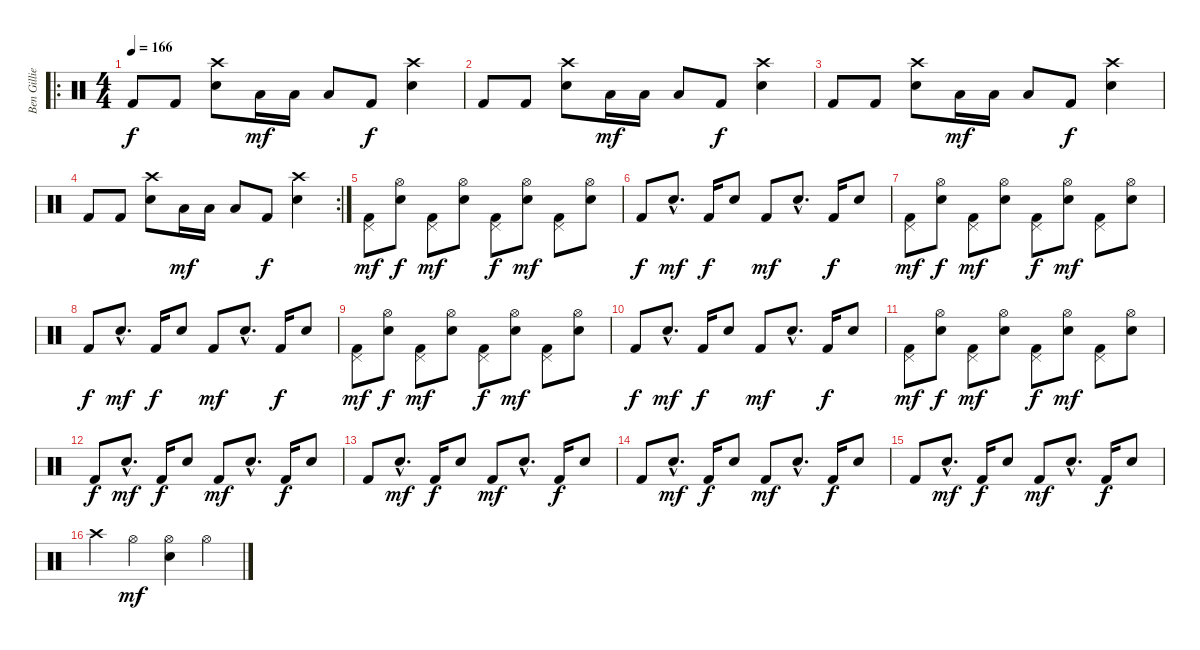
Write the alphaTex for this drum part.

\track ("Ben Gillies" "Ben Gillie") {instrument percussion}
\staff {score}
\articulation defaults
\ro
\ts (4 4)
\tempo 166
\clef neutral
\ks c "Kick (hit) 2".8{dy f} "Kick (hit) 2".8
("Crash high (hit)" "Electric Snare (hit)").8 "Low Tom (hit)".16{dy mf} "Low Tom (hit)".16 "Low Tom (hit)".8 "Kick (hit) 2".8{dy f} ("Crash high (hit)" "Electric Snare (hit)").4 |
"Kick (hit) 2".8 "Kick (hit) 2".8 ("Crash high (hit)" "Electric Snare (hit)").8 "Low Tom (hit)".16{dy mf} "Low Tom (hit)".16 "Low Tom (hit)".8 "Kick (hit) 2".8{dy f} ("Crash high (hit)" "Electric Snare (hit)").4 |
"Kick (hit) 2".8 "Kick (hit) 2".8 ("Crash high (hit)" "Electric Snare (hit)").8 "Low Tom (hit)".16{dy mf} "Low Tom (hit)".16 "Low Tom (hit)".8 "Kick (hit) 2".8{dy f} ("Crash high (hit)" "Electric Snare (hit)").4 |
\rc 2 "Kick (hit) 2".8 "Kick (hit) 2".8
("Crash high (hit)" "Electric Snare (hit)").8 "Low Tom (hit)".16{dy mf} "Low Tom (hit)".16 "Low Tom (hit)".8 "Kick (hit) 2".8{dy f} ("Crash high (hit)" "Electric Snare (hit)").4 |
("Pedal Hi-Hat (hit)" "Kick (hit) 2").8{dy mf} ("Hi-Hat (open)" "Electric Snare (hit)").8{dy f} ("Pedal Hi-Hat (hit)" "Kick (hit) 2").8{dy mf} ("Hi-Hat (open)" "Electric Snare (hit)").8 ("Pedal Hi-Hat (hit)" "Kick (hit) 2").8{dy f} ("Hi-Hat (open)" "Electric Snare (hit)").8{dy mf} ("Pedal Hi-Hat (hit)" "Kick (hit) 2").8 ("Hi-Hat (open)" "Electric Snare (hit)").8 |
"Kick (hit) 2".8{dy f} "Electric Snare (hit)"{hac}.8{d dy mf} "Kick (hit) 2".16{dy f} "Electric Snare (hit)".8 "Kick (hit) 2".8{dy mf} "Electric Snare (hit)"{hac}.8{d} "Kick (hit) 2".16{dy f} "Electric Snare (hit)".8 |
("Pedal Hi-Hat (hit)" "Kick (hit) 2").8{dy mf} ("Hi-Hat (open)" "Electric Snare (hit)").8{dy f} ("Pedal Hi-Hat (hit)" "Kick (hit) 2").8{dy mf} ("Hi-Hat (open)" "Electric Snare (hit)").8 ("Pedal Hi-Hat (hit)" "Kick (hit) 2").8{dy f} ("Hi-Hat (open)" "Electric Snare (hit)").8{dy mf} ("Pedal Hi-Hat (hit)" "Kick (hit) 2").8 ("Hi-Hat (open)" "Electric Snare (hit)").8 |
"Kick (hit) 2".8{dy f} "Electric Snare (hit)"{hac}.8{d dy mf} "Kick (hit) 2".16{dy f} "Electric Snare (hit)".8 "Kick (hit) 2".8{dy mf} "Electric Snare (hit)"{hac}.8{d} "Kick (hit) 2".16{dy f} "Electric Snare (hit)".8 |
("Pedal Hi-Hat (hit)" "Kick (hit) 2").8{dy mf} ("Hi-Hat (open)" "Electric Snare (hit)").8{dy f} ("Pedal Hi-Hat (hit)" "Kick (hit) 2").8{dy mf} ("Hi-Hat (open)" "Electric Snare (hit)").8 ("Pedal Hi-Hat (hit)" "Kick (hit) 2").8{dy f} ("Hi-Hat (open)" "Electric Snare (hit)").8{dy mf} ("Pedal Hi-Hat (hit)" "Kick (hit) 2").8 ("Hi-Hat (open)" "Electric Snare (hit)").8 |
"Kick (hit) 2".8{dy f} "Electric Snare (hit)"{hac}.8{d dy mf} "Kick (hit) 2".16{dy f} "Electric Snare (hit)".8 "Kick (hit) 2".8{dy mf} "Electric Snare (hit)"{hac}.8{d} "Kick (hit) 2".16{dy f} "Electric Snare (hit)".8 |
("Pedal Hi-Hat (hit)" "Kick (hit) 2").8{dy mf} ("Hi-Hat (open)" "Electric Snare (hit)").8{dy f} ("Pedal Hi-Hat (hit)" "Kick (hit) 2").8{dy mf} ("Hi-Hat (open)" "Electric Snare (hit)").8 ("Pedal Hi-Hat (hit)" "Kick (hit) 2").8{dy f} ("Hi-Hat (open)" "Electric Snare (hit)").8{dy mf} ("Pedal Hi-Hat (hit)" "Kick (hit) 2").8 ("Hi-Hat (open)" "Electric Snare (hit)").8 |
"Kick (hit) 2".8{dy f} "Electric Snare (hit)"{hac}.8{d dy mf} "Kick (hit) 2".16{dy f} "Electric Snare (hit)".8 "Kick (hit) 2".8{dy mf} "Electric Snare (hit)"{hac}.8{d} "Kick (hit) 2".16{dy f} "Electric Snare (hit)".8 |
"Kick (hit) 2".8 "Electric Snare (hit)"{hac}.8{d dy mf} "Kick (hit) 2".16{dy f} "Electric Snare (hit)".8 "Kick (hit) 2".8{dy mf} "Electric Snare (hit)"{hac}.8{d} "Kick (hit) 2".16{dy f} "Electric Snare (hit)".8 |
"Kick (hit) 2".8 "Electric Snare (hit)"{hac}.8{d dy mf} "Kick (hit) 2".16{dy f} "Electric Snare (hit)".8 "Kick (hit) 2".8{dy mf} "Electric Snare (hit)"{hac}.8{d} "Kick (hit) 2".16{dy f} "Electric Snare (hit)".8 |
"Kick (hit) 2".8 "Electric Snare (hit)"{hac}.8{d dy mf} "Kick (hit) 2".16{dy f} "Electric Snare (hit)".8 "Kick (hit) 2".8{dy mf} "Electric Snare (hit)"{hac}.8{d} "Kick (hit) 2".16{dy f} "Electric Snare (hit)".8 |
"Crash high (hit)".4 "Hi-Hat (open)".4{dy mf} ("Hi-Hat (open)" "Electric Snare (hit)").4 "Hi-Hat (open)".4
